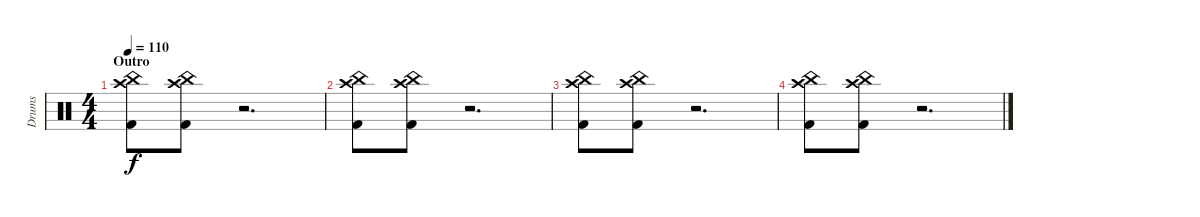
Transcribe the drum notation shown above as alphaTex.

\track ("Drums" "Drums") {instrument percussion}
\staff {score}
\articulation defaults
\ts (4 4)
\section ("" "Outro")
\tempo 110
\clef neutral
\ks c
("Crash high (hit)" "China (hit)" "Kick (hit) 2").8{dy f} ("Crash high (hit)" "China (hit)" "Kick (hit) 2").8 r.2{d} |
("Crash high (hit)" "China (hit)" "Kick (hit) 2").8 ("Crash high (hit)" "China (hit)" "Kick (hit) 2").8 r.2{d} |
("Crash high (hit)" "China (hit)" "Kick (hit) 2").8 ("Crash high (hit)" "China (hit)" "Kick (hit) 2").8 r.2{d} |
("Crash high (hit)" "China (hit)" "Kick (hit) 2").8 ("Crash high (hit)" "China (hit)" "Kick (hit) 2").8 r.2{d}
